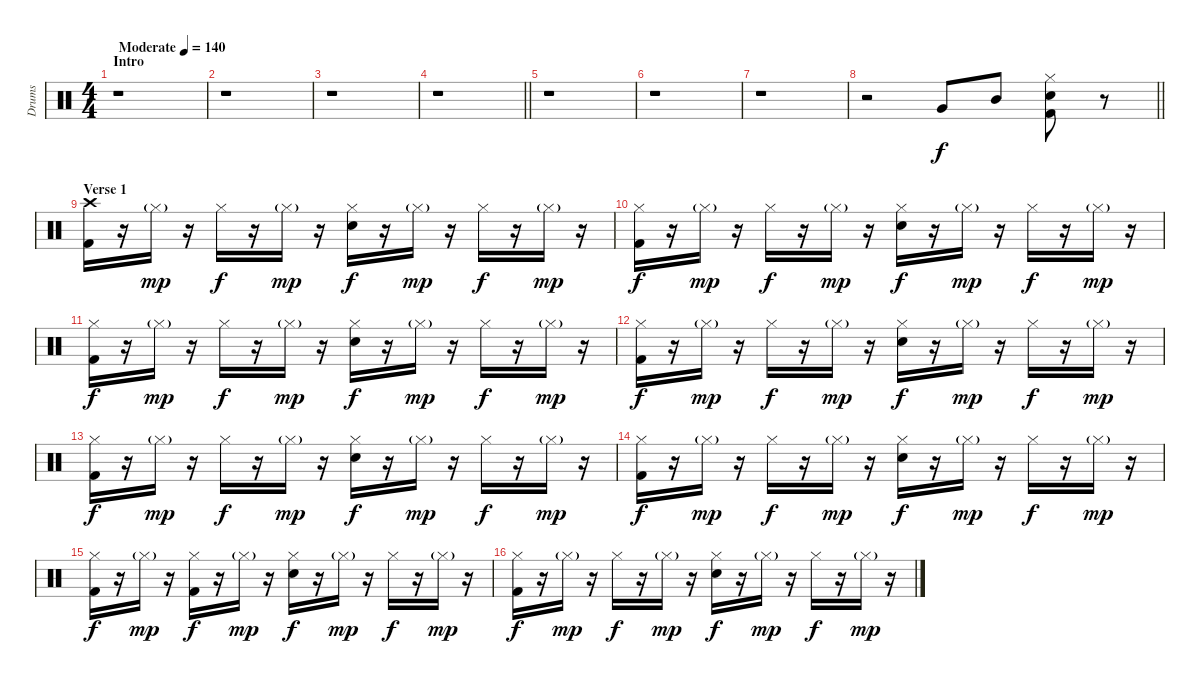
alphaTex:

\track ("Drums" "Drums") {instrument percussion}
\staff {score}
\articulation defaults
\ts (4 4)
\section ("" "Intro")
\tempo (140 "Moderate")
\clef neutral
\ks c
r.1{dy f} |
r.1 |
r.1 |
\barLineRight lightlight
r.1 |
r.1 |
r.1 |
r.1 |
\barLineRight lightlight
r.2 "Very Low Tom (hit)".8 "Mid Tom (hit)".8 ("Hi-Hat (closed)" "Snare (hit) 2" "Kick (hit) 2").8 r.8 |
\section ("" "Verse 1")
("Crash high (hit)" "Kick (hit) 2").16 r.16 "Hi-Hat (closed)"{g}.16{dy mp} r.16 "Hi-Hat (closed)".16{dy f} r.16 "Hi-Hat (closed)"{g}.16{dy mp} r.16 ("Hi-Hat (closed)" "Snare (hit) 2").16{dy f} r.16 "Hi-Hat (closed)"{g}.16{dy mp} r.16 "Hi-Hat (closed)".16{dy f} r.16 "Hi-Hat (closed)"{g}.16{dy mp} r.16 |
("Hi-Hat (closed)" "Kick (hit) 2").16{dy f} r.16 "Hi-Hat (closed)"{g}.16{dy mp} r.16 "Hi-Hat (closed)".16{dy f} r.16 "Hi-Hat (closed)"{g}.16{dy mp} r.16 ("Hi-Hat (closed)" "Snare (hit) 2").16{dy f} r.16 "Hi-Hat (closed)"{g}.16{dy mp} r.16 "Hi-Hat (closed)".16{dy f} r.16 "Hi-Hat (closed)"{g}.16{dy mp} r.16 |
("Hi-Hat (closed)" "Kick (hit) 2").16{dy f} r.16 "Hi-Hat (closed)"{g}.16{dy mp} r.16 "Hi-Hat (closed)".16{dy f} r.16 "Hi-Hat (closed)"{g}.16{dy mp} r.16 ("Hi-Hat (closed)" "Snare (hit) 2").16{dy f} r.16 "Hi-Hat (closed)"{g}.16{dy mp} r.16 "Hi-Hat (closed)".16{dy f} r.16 "Hi-Hat (closed)"{g}.16{dy mp} r.16 |
("Hi-Hat (closed)" "Kick (hit) 2").16{dy f} r.16 "Hi-Hat (closed)"{g}.16{dy mp} r.16 "Hi-Hat (closed)".16{dy f} r.16 "Hi-Hat (closed)"{g}.16{dy mp} r.16 ("Hi-Hat (closed)" "Snare (hit) 2").16{dy f} r.16 "Hi-Hat (closed)"{g}.16{dy mp} r.16 "Hi-Hat (closed)".16{dy f} r.16 "Hi-Hat (closed)"{g}.16{dy mp} r.16 |
("Hi-Hat (closed)" "Kick (hit) 2").16{dy f} r.16 "Hi-Hat (closed)"{g}.16{dy mp} r.16 "Hi-Hat (closed)".16{dy f} r.16 "Hi-Hat (closed)"{g}.16{dy mp} r.16 ("Hi-Hat (closed)" "Snare (hit) 2").16{dy f} r.16 "Hi-Hat (closed)"{g}.16{dy mp} r.16 "Hi-Hat (closed)".16{dy f} r.16 "Hi-Hat (closed)"{g}.16{dy mp} r.16 |
("Hi-Hat (closed)" "Kick (hit) 2").16{dy f} r.16 "Hi-Hat (closed)"{g}.16{dy mp} r.16 "Hi-Hat (closed)".16{dy f} r.16 "Hi-Hat (closed)"{g}.16{dy mp} r.16 ("Hi-Hat (closed)" "Snare (hit) 2").16{dy f} r.16 "Hi-Hat (closed)"{g}.16{dy mp} r.16 "Hi-Hat (closed)".16{dy f} r.16 "Hi-Hat (closed)"{g}.16{dy mp} r.16 |
("Hi-Hat (closed)" "Kick (hit) 2").16{dy f} r.16 "Hi-Hat (closed)"{g}.16{dy mp} r.16 ("Hi-Hat (closed)" "Kick (hit) 2").16{dy f} r.16 "Hi-Hat (closed)"{g}.16{dy mp} r.16 ("Hi-Hat (closed)" "Snare (hit) 2").16{dy f} r.16 "Hi-Hat (closed)"{g}.16{dy mp} r.16 "Hi-Hat (closed)".16{dy f} r.16 "Hi-Hat (closed)"{g}.16{dy mp} r.16 |
("Hi-Hat (closed)" "Kick (hit) 2").16{dy f} r.16 "Hi-Hat (closed)"{g}.16{dy mp} r.16 "Hi-Hat (closed)".16{dy f} r.16 "Hi-Hat (closed)"{g}.16{dy mp} r.16 ("Hi-Hat (closed)" "Snare (hit) 2").16{dy f} r.16 "Hi-Hat (closed)"{g}.16{dy mp} r.16 "Hi-Hat (closed)".16{dy f} r.16 "Hi-Hat (closed)"{g}.16{dy mp} r.16
